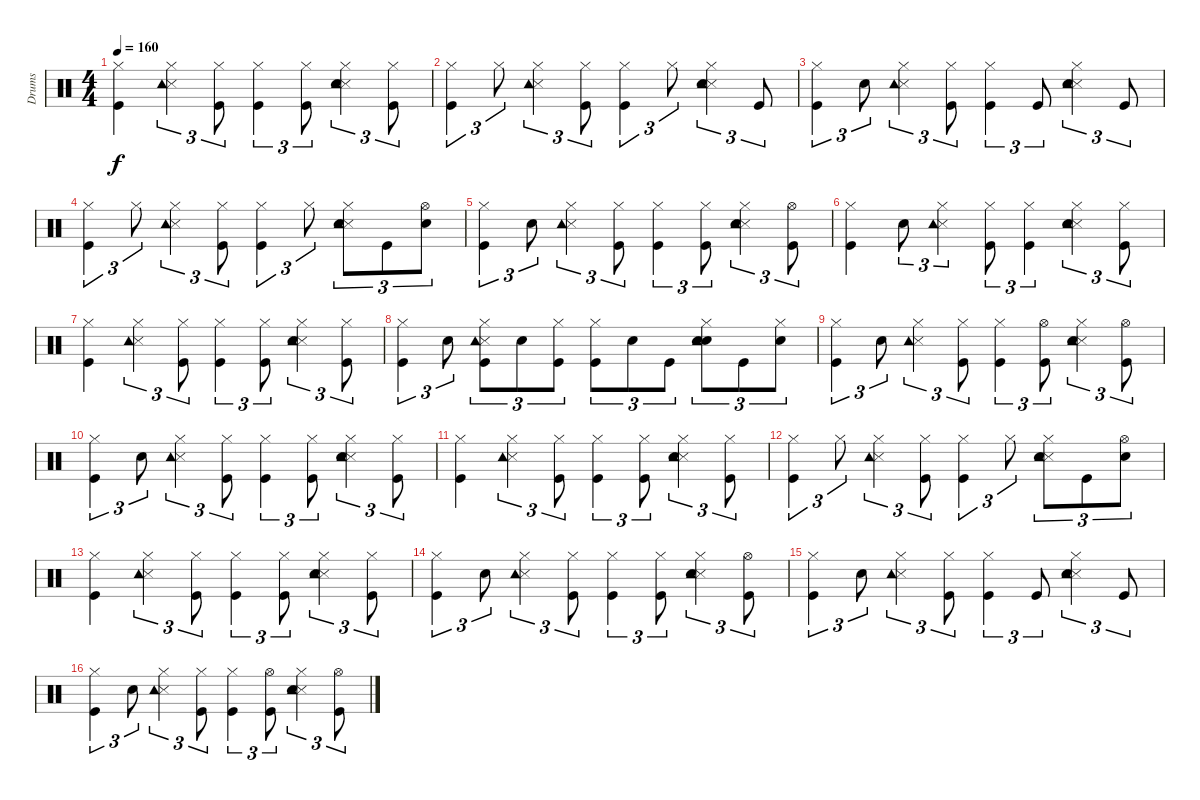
\track ("Drums   " "Drums   ") {instrument percussion}
\staff {score}
\articulation defaults
\ts (4 4)
\tempo 160
\clef neutral
\ks c
("Kick (hit)" "Hi-Hat (closed)").4{dy f} ("Snare (side stick) 3" "Tambourine (hit)" "Hi-Hat (closed)").4{tu (3 2)} ("Kick (hit)" "Hi-Hat (closed)").8{tu (3 2)} ("Kick (hit)" "Hi-Hat (closed)").4{tu (3 2)} ("Kick (hit)" "Hi-Hat (closed)").8{tu (3 2)} ("Snare (side stick) 3" "Hand Clap (hit)" "Tambourine (hit)" "Hi-Hat (closed)").4{tu (3 2)} ("Kick (hit)" "Hi-Hat (closed)").8{tu (3 2)} |
("Kick (hit)" "Hi-Hat (closed)").4{tu (3 2)} "Hi-Hat (closed)".8{tu (3 2)} ("Snare (side stick) 3" "Tambourine (hit)" "Hi-Hat (closed)").4{tu (3 2)} ("Kick (hit)" "Hi-Hat (closed)").8{tu (3 2)} ("Kick (hit)" "Hi-Hat (closed)").4{tu (3 2)} "Hi-Hat (closed)".8{tu (3 2)} ("Snare (side stick) 3" "Hand Clap (hit)" "Tambourine (hit)" "Hi-Hat (closed)").4{tu (3 2)} "Kick (hit)".8{tu (3 2)} |
("Kick (hit)" "Hi-Hat (closed)").4{tu (3 2)} "Snare (hit) 2".8{tu (3 2)} ("Snare (side stick) 3" "Tambourine (hit)" "Hi-Hat (closed)").4{tu (3 2)} ("Kick (hit)" "Hi-Hat (closed)").8{tu (3 2)} ("Kick (hit)" "Hi-Hat (closed)").4{tu (3 2)} "Kick (hit)".8{tu (3 2)} ("Snare (side stick) 3" "Hand Clap (hit)" "Tambourine (hit)" "Hi-Hat (closed)").4{tu (3 2)} "Kick (hit)".8{tu (3 2)} |
("Kick (hit)" "Hi-Hat (closed)").4{tu (3 2)} "Hi-Hat (closed)".8{tu (3 2)} ("Snare (side stick) 3" "Tambourine (hit)" "Hi-Hat (closed)").4{tu (3 2)} ("Kick (hit)" "Hi-Hat (closed)").8{tu (3 2)} ("Kick (hit)" "Hi-Hat (closed)").4{tu (3 2)} "Hi-Hat (closed)".8{tu (3 2)} ("Snare (side stick) 3" "Hand Clap (hit)" "Tambourine (hit)" "Hi-Hat (closed)").8{tu (3 2)} "Kick (hit)".8{tu (3 2)} ("Snare (hit) 2" "Hi-Hat (open)").8{tu (3 2)} |
("Kick (hit)" "Hi-Hat (closed)").4{tu (3 2)} "Snare (hit) 2".8{tu (3 2)} ("Snare (side stick) 3" "Tambourine (hit)" "Hi-Hat (closed)").4{tu (3 2)} ("Kick (hit)" "Hi-Hat (closed)").8{tu (3 2)} ("Kick (hit)" "Hi-Hat (closed)").4{tu (3 2)} ("Kick (hit)" "Hi-Hat (closed)").8{tu (3 2)} ("Snare (side stick) 3" "Hand Clap (hit)" "Tambourine (hit)" "Hi-Hat (closed)").4{tu (3 2)} ("Kick (hit)" "Hi-Hat (open)").8{tu (3 2)} |
("Kick (hit)" "Hi-Hat (closed)").4 "Snare (hit) 2".8{tu (3 2)} ("Snare (side stick) 3" "Tambourine (hit)" "Hi-Hat (closed)").4{tu (3 2)} ("Kick (hit)" "Hi-Hat (closed)").8{tu (3 2)} ("Kick (hit)" "Hi-Hat (closed)").4{tu (3 2)} ("Snare (side stick) 3" "Hand Clap (hit)" "Tambourine (hit)" "Hi-Hat (closed)").4{tu (3 2)} ("Kick (hit)" "Hi-Hat (closed)").8{tu (3 2)} |
("Kick (hit)" "Hi-Hat (closed)").4 ("Snare (side stick) 3" "Tambourine (hit)" "Hi-Hat (closed)").4{tu (3 2)} ("Kick (hit)" "Hi-Hat (closed)").8{tu (3 2)} ("Kick (hit)" "Hi-Hat (closed)").4{tu (3 2)} ("Kick (hit)" "Hi-Hat (closed)").8{tu (3 2)} ("Snare (side stick) 3" "Hand Clap (hit)" "Tambourine (hit)" "Hi-Hat (closed)").4{tu (3 2)} ("Kick (hit)" "Hi-Hat (closed)").8{tu (3 2)} |
("Kick (hit)" "Hi-Hat (closed)").4{tu (3 2)} "Snare (hit) 2".8{tu (3 2)} ("Kick (hit)" "Snare (side stick) 3" "Tambourine (hit)" "Hi-Hat (closed)").8{tu (3 2)} "Snare (hit) 2".8{tu (3 2)} ("Kick (hit)" "Hi-Hat (closed)").8{tu (3 2)} ("Kick (hit)" "Hi-Hat (closed)").8{tu (3 2)} "Snare (hit) 2".8{tu (3 2)} "Kick (hit)".8{tu (3 2)} ("Snare (hit) 2" "Hand Clap (hit)" "Tambourine (hit)" "Hi-Hat (closed)").8{tu (3 2)} "Kick (hit)".8{tu (3 2)} ("Snare (hit) 2" "Hi-Hat (closed)").8{tu (3 2)} |
("Kick (hit)" "Hi-Hat (closed)").4{tu (3 2)} "Snare (hit) 2".8{tu (3 2)} ("Snare (side stick) 3" "Tambourine (hit)" "Hi-Hat (closed)").4{tu (3 2)} ("Kick (hit)" "Hi-Hat (closed)").8{tu (3 2)} ("Kick (hit)" "Hi-Hat (closed)").4{tu (3 2)} ("Kick (hit)" "Hi-Hat (open)").8{tu (3 2)} ("Snare (side stick) 3" "Hand Clap (hit)" "Tambourine (hit)" "Hi-Hat (closed)").4{tu (3 2)} ("Kick (hit)" "Hi-Hat (open)").8{tu (3 2)} |
("Kick (hit)" "Hi-Hat (closed)").4{tu (3 2)} "Snare (hit) 2".8{tu (3 2)} ("Snare (side stick) 3" "Tambourine (hit)" "Hi-Hat (closed)").4{tu (3 2)} ("Kick (hit)" "Hi-Hat (closed)").8{tu (3 2)} ("Kick (hit)" "Hi-Hat (closed)").4{tu (3 2)} ("Kick (hit)" "Hi-Hat (closed)").8{tu (3 2)} ("Snare (side stick) 3" "Hand Clap (hit)" "Tambourine (hit)" "Hi-Hat (closed)").4{tu (3 2)} ("Kick (hit)" "Hi-Hat (closed)").8{tu (3 2)} |
("Kick (hit)" "Hi-Hat (closed)").4 ("Snare (side stick) 3" "Tambourine (hit)" "Hi-Hat (closed)").4{tu (3 2)} ("Kick (hit)" "Hi-Hat (closed)").8{tu (3 2)} ("Kick (hit)" "Hi-Hat (closed)").4{tu (3 2)} ("Kick (hit)" "Hi-Hat (closed)").8{tu (3 2)} ("Snare (side stick) 3" "Hand Clap (hit)" "Tambourine (hit)" "Hi-Hat (closed)").4{tu (3 2)} ("Kick (hit)" "Hi-Hat (closed)").8{tu (3 2)} |
("Kick (hit)" "Hi-Hat (closed)").4{tu (3 2)} "Hi-Hat (closed)".8{tu (3 2)} ("Snare (side stick) 3" "Tambourine (hit)" "Hi-Hat (closed)").4{tu (3 2)} ("Kick (hit)" "Hi-Hat (closed)").8{tu (3 2)} ("Kick (hit)" "Hi-Hat (closed)").4{tu (3 2)} "Hi-Hat (closed)".8{tu (3 2)} ("Snare (side stick) 3" "Hand Clap (hit)" "Tambourine (hit)" "Hi-Hat (closed)").8{tu (3 2)} "Kick (hit)".8{tu (3 2)} ("Snare (hit) 2" "Hi-Hat (open)").8{tu (3 2)} |
("Kick (hit)" "Hi-Hat (closed)").4 ("Snare (side stick) 3" "Tambourine (hit)" "Hi-Hat (closed)").4{tu (3 2)} ("Kick (hit)" "Hi-Hat (closed)").8{tu (3 2)} ("Kick (hit)" "Hi-Hat (closed)").4{tu (3 2)} ("Kick (hit)" "Hi-Hat (closed)").8{tu (3 2)} ("Snare (side stick) 3" "Hand Clap (hit)" "Tambourine (hit)" "Hi-Hat (closed)").4{tu (3 2)} ("Kick (hit)" "Hi-Hat (closed)").8{tu (3 2)} |
("Kick (hit)" "Hi-Hat (closed)").4{tu (3 2)} "Snare (hit) 2".8{tu (3 2)} ("Snare (side stick) 3" "Tambourine (hit)" "Hi-Hat (closed)").4{tu (3 2)} ("Kick (hit)" "Hi-Hat (closed)").8{tu (3 2)} ("Kick (hit)" "Hi-Hat (closed)").4{tu (3 2)} ("Kick (hit)" "Hi-Hat (closed)").8{tu (3 2)} ("Snare (side stick) 3" "Hand Clap (hit)" "Tambourine (hit)" "Hi-Hat (closed)").4{tu (3 2)} ("Kick (hit)" "Hi-Hat (open)").8{tu (3 2)} |
("Kick (hit)" "Hi-Hat (closed)").4{tu (3 2)} "Snare (hit) 2".8{tu (3 2)} ("Snare (side stick) 3" "Tambourine (hit)" "Hi-Hat (closed)").4{tu (3 2)} ("Kick (hit)" "Hi-Hat (closed)").8{tu (3 2)} ("Kick (hit)" "Hi-Hat (closed)").4{tu (3 2)} "Kick (hit)".8{tu (3 2)} ("Snare (side stick) 3" "Hand Clap (hit)" "Tambourine (hit)" "Hi-Hat (closed)").4{tu (3 2)} "Kick (hit)".8{tu (3 2)} |
("Kick (hit)" "Hi-Hat (closed)").4{tu (3 2)} "Snare (hit) 2".8{tu (3 2)} ("Snare (side stick) 3" "Tambourine (hit)" "Hi-Hat (closed)").4{tu (3 2)} ("Kick (hit)" "Hi-Hat (closed)").8{tu (3 2)} ("Kick (hit)" "Hi-Hat (closed)").4{tu (3 2)} ("Kick (hit)" "Hi-Hat (open)").8{tu (3 2)} ("Snare (side stick) 3" "Hand Clap (hit)" "Tambourine (hit)" "Hi-Hat (closed)").4{tu (3 2)} ("Kick (hit)" "Hi-Hat (open)").8{tu (3 2)}
